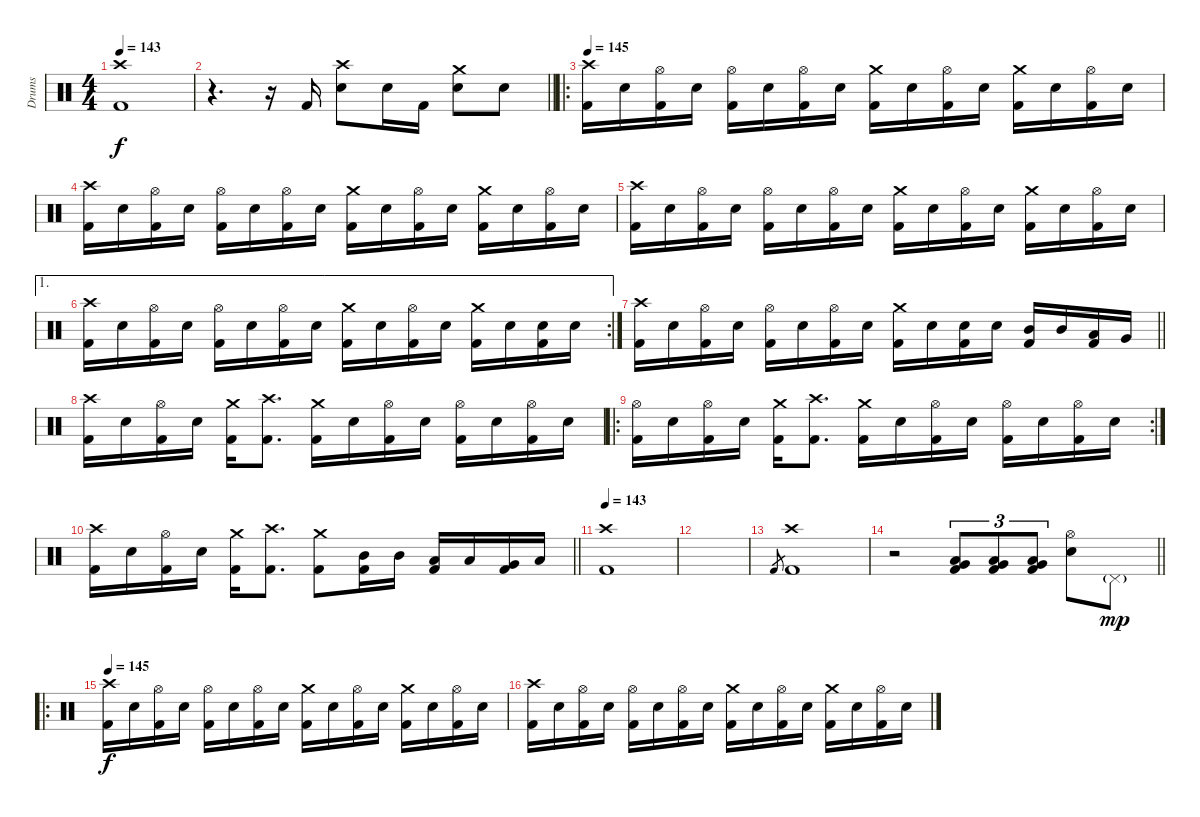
\track ("Drums" "Drums") {instrument percussion}
\staff {score}
\articulation defaults
\ts (4 4)
\tempo 143
\clef neutral
\ks c
("Crash high (hit)" "Kick (hit) 2").1{dy f} |
\barLineRight lightlight
r.4{d} r.16 "Kick (hit) 2".16 ("Crash high (hit)" "Electric Snare (hit)").8 "Electric Snare (hit)".16 "Kick (hit) 2".16 ("Crash medium (hit)" "Electric Snare (hit)").8 "Electric Snare (hit)".8 |
\ro
\section ("" "")
\tempo 145
("Crash high (hit)" "Kick (hit) 2").16 "Electric Snare (hit)".16 ("Hi-Hat (open)" "Kick (hit) 2").16 "Electric Snare (hit)".16 ("Hi-Hat (open)" "Kick (hit) 2").16 "Electric Snare (hit)".16 ("Hi-Hat (open)" "Kick (hit) 2").16 "Electric Snare (hit)".16 ("Crash medium (hit)" "Kick (hit) 2").16 "Electric Snare (hit)".16 ("Hi-Hat (open)" "Kick (hit) 2").16 "Electric Snare (hit)".16 ("Crash medium (hit)" "Kick (hit) 2").16 "Electric Snare (hit)".16 ("Hi-Hat (open)" "Kick (hit) 2").16 "Electric Snare (hit)".16 |
("Crash high (hit)" "Kick (hit) 2").16 "Electric Snare (hit)".16 ("Hi-Hat (open)" "Kick (hit) 2").16 "Electric Snare (hit)".16 ("Hi-Hat (open)" "Kick (hit) 2").16 "Electric Snare (hit)".16 ("Hi-Hat (open)" "Kick (hit) 2").16 "Electric Snare (hit)".16 ("Crash medium (hit)" "Kick (hit) 2").16 "Electric Snare (hit)".16 ("Hi-Hat (open)" "Kick (hit) 2").16 "Electric Snare (hit)".16 ("Crash medium (hit)" "Kick (hit) 2").16 "Electric Snare (hit)".16 ("Hi-Hat (open)" "Kick (hit) 2").16 "Electric Snare (hit)".16 |
("Crash high (hit)" "Kick (hit) 2").16 "Electric Snare (hit)".16 ("Hi-Hat (open)" "Kick (hit) 2").16 "Electric Snare (hit)".16 ("Hi-Hat (open)" "Kick (hit) 2").16 "Electric Snare (hit)".16 ("Hi-Hat (open)" "Kick (hit) 2").16 "Electric Snare (hit)".16 ("Crash medium (hit)" "Kick (hit) 2").16 "Electric Snare (hit)".16 ("Hi-Hat (open)" "Kick (hit) 2").16 "Electric Snare (hit)".16 ("Crash medium (hit)" "Kick (hit) 2").16 "Electric Snare (hit)".16 ("Hi-Hat (open)" "Kick (hit) 2").16 "Electric Snare (hit)".16 |
\ae 1
\rc 2
("Crash high (hit)" "Kick (hit) 2").16 "Electric Snare (hit)".16 ("Hi-Hat (open)" "Kick (hit) 2").16 "Electric Snare (hit)".16 ("Hi-Hat (open)" "Kick (hit) 2").16 "Electric Snare (hit)".16 ("Hi-Hat (open)" "Kick (hit) 2").16 "Electric Snare (hit)".16 ("Crash medium (hit)" "Kick (hit) 2").16 "Electric Snare (hit)".16 ("Hi-Hat (open)" "Kick (hit) 2").16 "Electric Snare (hit)".16 ("Crash medium (hit)" "Kick (hit) 2").16 "Electric Snare (hit)".16 ("Electric Snare (hit)" "Kick (hit) 2").16 "Electric Snare (hit)".16 |
\barLineRight lightlight
("Crash high (hit)" "Kick (hit) 2").16 "Electric Snare (hit)".16 ("Hi-Hat (open)" "Kick (hit) 2").16 "Electric Snare (hit)".16 ("Hi-Hat (open)" "Kick (hit) 2").16 "Electric Snare (hit)".16 ("Hi-Hat (open)" "Kick (hit) 2").16 "Electric Snare (hit)".16 ("Crash medium (hit)" "Kick (hit) 2").16 "Electric Snare (hit)".16 ("Electric Snare (hit)" "Kick (hit) 2").16 "Electric Snare (hit)".16 ("Mid Tom (hit)" "Kick (hit) 2").16 "Mid Tom (hit)".16 ("Low Tom (hit)" "Kick (hit) 2").16 "Very Low Tom (hit)".16 |
\section ("" "")
("Crash high (hit)" "Kick (hit) 2").16 "Electric Snare (hit)".16 ("Hi-Hat (open)" "Kick (hit) 2").16 "Electric Snare (hit)".16 ("Crash medium (hit)" "Kick (hit) 2").16 ("Crash high (hit)" "Kick (hit) 2").8{d} ("Crash medium (hit)" "Kick (hit) 2").16 "Electric Snare (hit)".16 ("Hi-Hat (open)" "Kick (hit) 2").16 "Electric Snare (hit)".16 ("Hi-Hat (open)" "Kick (hit) 2").16 "Electric Snare (hit)".16 ("Hi-Hat (open)" "Kick (hit) 2").16 "Electric Snare (hit)".16 |
\ro
\rc 2
("Hi-Hat (open)" "Kick (hit) 2").16 "Electric Snare (hit)".16 ("Hi-Hat (open)" "Kick (hit) 2").16 "Electric Snare (hit)".16 ("Crash medium (hit)" "Kick (hit) 2").16 ("Crash high (hit)" "Kick (hit) 2").8{d} ("Crash medium (hit)" "Kick (hit) 2").16 "Electric Snare (hit)".16 ("Hi-Hat (open)" "Kick (hit) 2").16 "Electric Snare (hit)".16 ("Hi-Hat (open)" "Kick (hit) 2").16 "Electric Snare (hit)".16 ("Hi-Hat (open)" "Kick (hit) 2").16 "Electric Snare (hit)".16 |
\barLineRight lightlight
("Crash high (hit)" "Kick (hit) 2").16 "Electric Snare (hit)".16 ("Hi-Hat (open)" "Kick (hit) 2").16 "Electric Snare (hit)".16 ("Crash medium (hit)" "Kick (hit) 2").16 ("Crash high (hit)" "Kick (hit) 2").8{d} ("Crash medium (hit)" "Kick (hit) 2").8 ("Mid Tom (hit)" "Kick (hit) 2").16 "Mid Tom (hit)".16 ("Low Tom (hit)" "Kick (hit) 2").16 "Low Tom (hit)".16 ("Very Low Tom (hit)" "Kick (hit) 2").16 "Low Floor Tom (hit)".16 |
\section ("" "")
\tempo 143
("Crash high (hit)" "Kick (hit) 2").1 |
|
"Kick (hit) 2".8{gr} ("Crash high (hit)" "Kick (hit) 2").1 |
\barLineRight lightlight
r.2 ("Very Low Tom (hit)" "Low Floor Tom (hit)" "Kick (hit) 2").8{tu (3 2)} ("Very Low Tom (hit)" "Low Floor Tom (hit)" "Kick (hit) 2").8{tu (3 2)} ("Very Low Tom (hit)" "Low Floor Tom (hit)" "Kick (hit) 2").8{tu (3 2)} ("Hi-Hat (open)" "Electric Snare (hit)").8 "Pedal Hi-Hat (hit)"{g}.8{dy mp} |
\ro
\section ("" "")
\tempo 145
("Crash high (hit)" "Kick (hit) 2").16{dy f} "Electric Snare (hit)".16 ("Hi-Hat (open)" "Kick (hit) 2").16 "Electric Snare (hit)".16 ("Hi-Hat (open)" "Kick (hit) 2").16 "Electric Snare (hit)".16 ("Hi-Hat (open)" "Kick (hit) 2").16 "Electric Snare (hit)".16 ("Crash medium (hit)" "Kick (hit) 2").16 "Electric Snare (hit)".16 ("Hi-Hat (open)" "Kick (hit) 2").16 "Electric Snare (hit)".16 ("Crash medium (hit)" "Kick (hit) 2").16 "Electric Snare (hit)".16 ("Hi-Hat (open)" "Kick (hit) 2").16 "Electric Snare (hit)".16 |
("Crash high (hit)" "Kick (hit) 2").16 "Electric Snare (hit)".16 ("Hi-Hat (open)" "Kick (hit) 2").16 "Electric Snare (hit)".16 ("Hi-Hat (open)" "Kick (hit) 2").16 "Electric Snare (hit)".16 ("Hi-Hat (open)" "Kick (hit) 2").16 "Electric Snare (hit)".16 ("Crash medium (hit)" "Kick (hit) 2").16 "Electric Snare (hit)".16 ("Hi-Hat (open)" "Kick (hit) 2").16 "Electric Snare (hit)".16 ("Crash medium (hit)" "Kick (hit) 2").16 "Electric Snare (hit)".16 ("Hi-Hat (open)" "Kick (hit) 2").16 "Electric Snare (hit)".16
